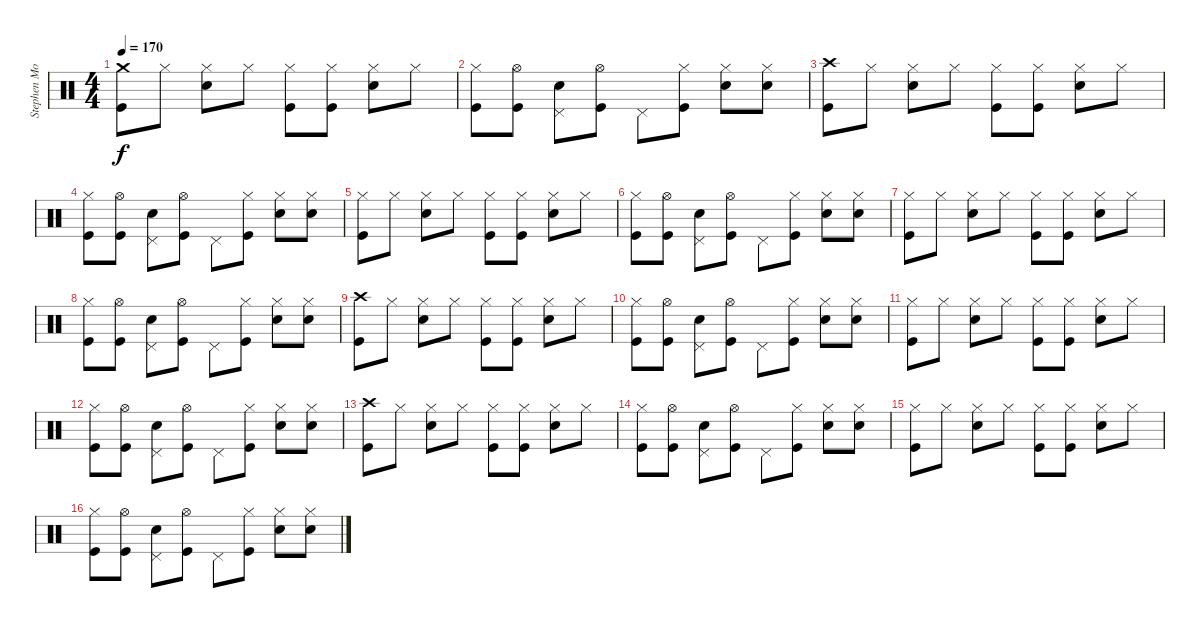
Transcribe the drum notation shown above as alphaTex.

\track ("Stephen Morris (Drums)" "Stephen Mo") {instrument percussion}
\staff {score}
\articulation defaults
\ts (4 4)
\tempo 170
\clef neutral
\ks c
("Crash medium (hit)" "Kick (hit)").8{dy f} "Hi-Hat (closed)".8 ("Hi-Hat (closed)" "Electric Snare (hit)").8 "Hi-Hat (closed)".8 ("Hi-Hat (closed)" "Kick (hit)").8 ("Hi-Hat (closed)" "Kick (hit)").8 ("Hi-Hat (closed)" "Electric Snare (hit)").8 "Hi-Hat (closed)".8 |
("Hi-Hat (closed)" "Kick (hit)").8 ("Hi-Hat (open)" "Kick (hit)").8 ("Pedal Hi-Hat (hit)" "Electric Snare (hit)").8 ("Hi-Hat (open)" "Kick (hit)").8 "Pedal Hi-Hat (hit)".8 ("Hi-Hat (closed)" "Kick (hit)").8 ("Hi-Hat (closed)" "Electric Snare (hit)").8 ("Hi-Hat (closed)" "Electric Snare (hit)").8 |
("Crash high (hit)" "Kick (hit)").8 "Hi-Hat (closed)".8 ("Hi-Hat (closed)" "Electric Snare (hit)").8 "Hi-Hat (closed)".8 ("Hi-Hat (closed)" "Kick (hit)").8 ("Hi-Hat (closed)" "Kick (hit)").8 ("Hi-Hat (closed)" "Electric Snare (hit)").8 "Hi-Hat (closed)".8 |
("Hi-Hat (closed)" "Kick (hit)").8 ("Hi-Hat (open)" "Kick (hit)").8 ("Pedal Hi-Hat (hit)" "Electric Snare (hit)").8 ("Hi-Hat (open)" "Kick (hit)").8 "Pedal Hi-Hat (hit)".8 ("Hi-Hat (closed)" "Kick (hit)").8 ("Hi-Hat (closed)" "Electric Snare (hit)").8 ("Hi-Hat (closed)" "Electric Snare (hit)").8 |
("Hi-Hat (closed)" "Kick (hit)").8 "Hi-Hat (closed)".8 ("Hi-Hat (closed)" "Electric Snare (hit)").8 "Hi-Hat (closed)".8 ("Hi-Hat (closed)" "Kick (hit)").8 ("Hi-Hat (closed)" "Kick (hit)").8 ("Hi-Hat (closed)" "Electric Snare (hit)").8 "Hi-Hat (closed)".8 |
("Hi-Hat (closed)" "Kick (hit)").8 ("Hi-Hat (open)" "Kick (hit)").8 ("Pedal Hi-Hat (hit)" "Electric Snare (hit)").8 ("Hi-Hat (open)" "Kick (hit)").8 "Pedal Hi-Hat (hit)".8 ("Hi-Hat (closed)" "Kick (hit)").8 ("Hi-Hat (closed)" "Electric Snare (hit)").8 ("Hi-Hat (closed)" "Electric Snare (hit)").8 |
("Hi-Hat (closed)" "Kick (hit)").8 "Hi-Hat (closed)".8 ("Hi-Hat (closed)" "Electric Snare (hit)").8 "Hi-Hat (closed)".8 ("Hi-Hat (closed)" "Kick (hit)").8 ("Hi-Hat (closed)" "Kick (hit)").8 ("Hi-Hat (closed)" "Electric Snare (hit)").8 "Hi-Hat (closed)".8 |
("Hi-Hat (closed)" "Kick (hit)").8 ("Hi-Hat (open)" "Kick (hit)").8 ("Pedal Hi-Hat (hit)" "Electric Snare (hit)").8 ("Hi-Hat (open)" "Kick (hit)").8 "Pedal Hi-Hat (hit)".8 ("Hi-Hat (closed)" "Kick (hit)").8 ("Hi-Hat (closed)" "Electric Snare (hit)").8 ("Hi-Hat (closed)" "Electric Snare (hit)").8 |
("Crash high (hit)" "Kick (hit)").8 "Hi-Hat (closed)".8 ("Hi-Hat (closed)" "Electric Snare (hit)").8 "Hi-Hat (closed)".8 ("Hi-Hat (closed)" "Kick (hit)").8 ("Hi-Hat (closed)" "Kick (hit)").8 ("Hi-Hat (closed)" "Electric Snare (hit)").8 "Hi-Hat (closed)".8 |
("Hi-Hat (closed)" "Kick (hit)").8 ("Hi-Hat (open)" "Kick (hit)").8 ("Pedal Hi-Hat (hit)" "Electric Snare (hit)").8 ("Hi-Hat (open)" "Kick (hit)").8 "Pedal Hi-Hat (hit)".8 ("Hi-Hat (closed)" "Kick (hit)").8 ("Hi-Hat (closed)" "Electric Snare (hit)").8 ("Hi-Hat (closed)" "Electric Snare (hit)").8 |
("Hi-Hat (closed)" "Kick (hit)").8 "Hi-Hat (closed)".8 ("Hi-Hat (closed)" "Electric Snare (hit)").8 "Hi-Hat (closed)".8 ("Hi-Hat (closed)" "Kick (hit)").8 ("Hi-Hat (closed)" "Kick (hit)").8 ("Hi-Hat (closed)" "Electric Snare (hit)").8 "Hi-Hat (closed)".8 |
("Hi-Hat (closed)" "Kick (hit)").8 ("Hi-Hat (open)" "Kick (hit)").8 ("Pedal Hi-Hat (hit)" "Electric Snare (hit)").8 ("Hi-Hat (open)" "Kick (hit)").8 "Pedal Hi-Hat (hit)".8 ("Hi-Hat (closed)" "Kick (hit)").8 ("Hi-Hat (closed)" "Electric Snare (hit)").8 ("Hi-Hat (closed)" "Electric Snare (hit)").8 |
("Crash high (hit)" "Kick (hit)").8 "Hi-Hat (closed)".8 ("Hi-Hat (closed)" "Electric Snare (hit)").8 "Hi-Hat (closed)".8 ("Hi-Hat (closed)" "Kick (hit)").8 ("Hi-Hat (closed)" "Kick (hit)").8 ("Hi-Hat (closed)" "Electric Snare (hit)").8 "Hi-Hat (closed)".8 |
("Hi-Hat (closed)" "Kick (hit)").8 ("Hi-Hat (open)" "Kick (hit)").8 ("Pedal Hi-Hat (hit)" "Electric Snare (hit)").8 ("Hi-Hat (open)" "Kick (hit)").8 "Pedal Hi-Hat (hit)".8 ("Hi-Hat (closed)" "Kick (hit)").8 ("Hi-Hat (closed)" "Electric Snare (hit)").8 ("Hi-Hat (closed)" "Electric Snare (hit)").8 |
("Hi-Hat (closed)" "Kick (hit)").8 "Hi-Hat (closed)".8 ("Hi-Hat (closed)" "Electric Snare (hit)").8 "Hi-Hat (closed)".8 ("Hi-Hat (closed)" "Kick (hit)").8 ("Hi-Hat (closed)" "Kick (hit)").8 ("Hi-Hat (closed)" "Electric Snare (hit)").8 "Hi-Hat (closed)".8 |
("Hi-Hat (closed)" "Kick (hit)").8 ("Hi-Hat (open)" "Kick (hit)").8 ("Pedal Hi-Hat (hit)" "Electric Snare (hit)").8 ("Hi-Hat (open)" "Kick (hit)").8 "Pedal Hi-Hat (hit)".8 ("Hi-Hat (closed)" "Kick (hit)").8 ("Hi-Hat (closed)" "Electric Snare (hit)").8 ("Hi-Hat (closed)" "Electric Snare (hit)").8
